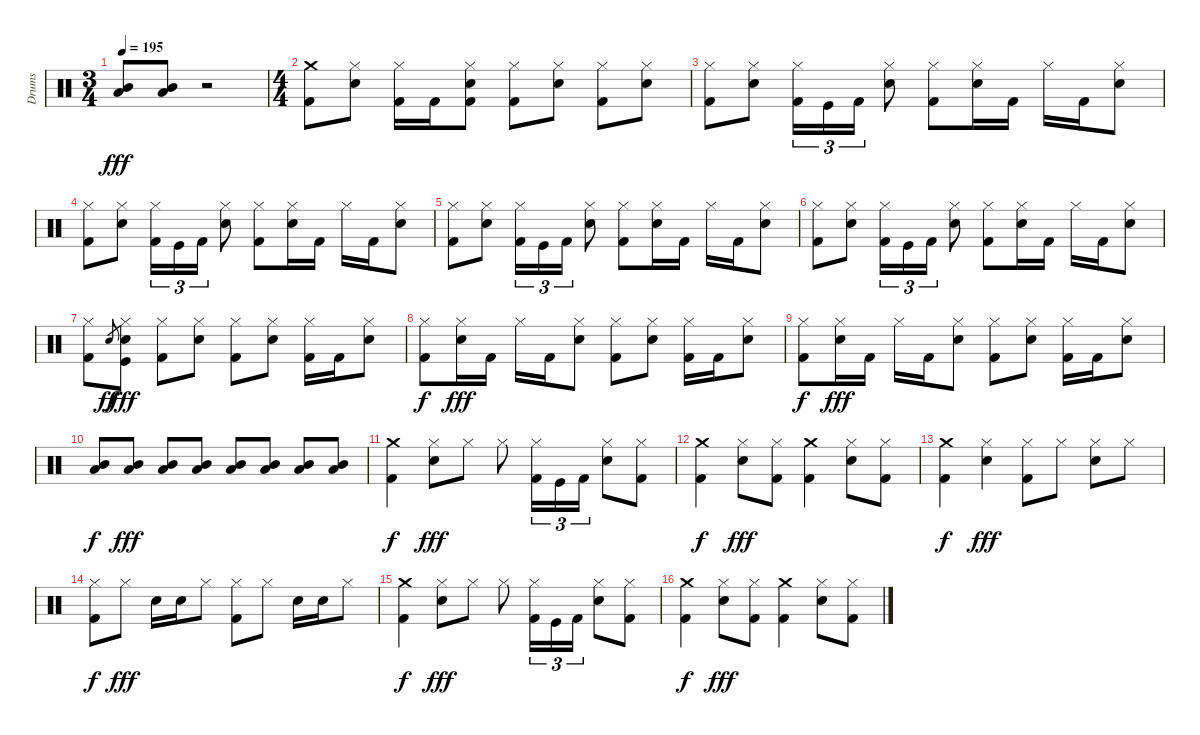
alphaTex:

\track ("Drums" "Drums") {instrument percussion}
\staff {score}
\articulation defaults
\ts (3 4)
\tempo 195
\clef neutral
\ks c
("Mid Tom (hit)" "Low Tom (hit)").8{dy fff} ("Mid Tom (hit)" "Low Tom (hit)").8 r.2 |
\ts (4 4)
("Kick (hit) 2" "Crash medium (hit)").8 ("Hi-Hat (closed)" "Snare (hit) 2").8 ("Kick (hit) 2" "Hi-Hat (closed)").16 "Kick (hit) 2".16 ("Kick (hit) 2" "Snare (hit) 2" "Hi-Hat (closed)").8 ("Kick (hit) 2" "Hi-Hat (closed)").8 ("Snare (hit) 2" "Hi-Hat (closed)").8 ("Kick (hit) 2" "Hi-Hat (closed)").8 ("Snare (hit) 2" "Hi-Hat (closed)").8 |
("Kick (hit) 2" "Hi-Hat (closed)").8 ("Snare (hit) 2" "Hi-Hat (closed)").8 ("Kick (hit) 2" "Hi-Hat (closed)").16{tu (3 2)} "Kick (hit)".16{tu (3 2)} "Kick (hit) 2".16{tu (3 2)} ("Snare (hit) 2" "Hi-Hat (closed)").8 ("Kick (hit) 2" "Hi-Hat (closed)").8 ("Snare (hit) 2" "Hi-Hat (closed)").16 "Kick (hit) 2".16 "Hi-Hat (closed)".16 "Kick (hit) 2".16 ("Snare (hit) 2" "Hi-Hat (closed)").8 |
("Kick (hit) 2" "Hi-Hat (closed)").8 ("Snare (hit) 2" "Hi-Hat (closed)").8 ("Kick (hit) 2" "Hi-Hat (closed)").16{tu (3 2)} "Kick (hit)".16{tu (3 2)} "Kick (hit) 2".16{tu (3 2)} ("Snare (hit) 2" "Hi-Hat (closed)").8 ("Kick (hit) 2" "Hi-Hat (closed)").8 ("Snare (hit) 2" "Hi-Hat (closed)").16 "Kick (hit) 2".16 "Hi-Hat (closed)".16 "Kick (hit) 2".16 ("Snare (hit) 2" "Hi-Hat (closed)").8 |
("Kick (hit) 2" "Hi-Hat (closed)").8 ("Snare (hit) 2" "Hi-Hat (closed)").8 ("Kick (hit) 2" "Hi-Hat (closed)").16{tu (3 2)} "Kick (hit)".16{tu (3 2)} "Kick (hit) 2".16{tu (3 2)} ("Snare (hit) 2" "Hi-Hat (closed)").8 ("Kick (hit) 2" "Hi-Hat (closed)").8 ("Snare (hit) 2" "Hi-Hat (closed)").16 "Kick (hit) 2".16 "Hi-Hat (closed)".16 "Kick (hit) 2".16 ("Snare (hit) 2" "Hi-Hat (closed)").8 |
("Kick (hit) 2" "Hi-Hat (closed)").8 ("Snare (hit) 2" "Hi-Hat (closed)").8 ("Kick (hit) 2" "Hi-Hat (closed)").16{tu (3 2)} "Kick (hit)".16{tu (3 2)} "Kick (hit) 2".16{tu (3 2)} ("Snare (hit) 2" "Hi-Hat (closed)").8 ("Kick (hit) 2" "Hi-Hat (closed)").8 ("Snare (hit) 2" "Hi-Hat (closed)").16 "Kick (hit) 2".16 "Hi-Hat (closed)".16 "Kick (hit) 2".16 ("Snare (hit) 2" "Hi-Hat (closed)").8 |
("Kick (hit) 2" "Hi-Hat (closed)").8 "Snare (hit)".8{gr dy ff} ("Kick (hit)" "Snare (hit) 2" "Hi-Hat (closed)").8{dy fff} ("Kick (hit) 2" "Hi-Hat (closed)").8 ("Snare (hit) 2" "Hi-Hat (closed)").8 ("Kick (hit) 2" "Hi-Hat (closed)").8 ("Snare (hit) 2" "Hi-Hat (closed)").8 ("Kick (hit) 2" "Hi-Hat (closed)").16 "Kick (hit) 2".16 ("Snare (hit) 2" "Hi-Hat (closed)").8 |
("Hi-Hat (closed)" "Kick (hit) 2").8{dy f} ("Snare (hit) 2" "Hi-Hat (closed)").16{dy fff} "Kick (hit) 2".16 "Hi-Hat (closed)".16 "Kick (hit) 2".16 ("Snare (hit) 2" "Hi-Hat (closed)").8 ("Hi-Hat (closed)" "Kick (hit) 2").8 ("Snare (hit) 2" "Hi-Hat (closed)").8 ("Hi-Hat (closed)" "Kick (hit) 2").16 "Kick (hit) 2".16 ("Snare (hit) 2" "Hi-Hat (closed)").8 |
("Hi-Hat (closed)" "Kick (hit) 2").8{dy f} ("Snare (hit) 2" "Hi-Hat (closed)").16{dy fff} "Kick (hit) 2".16 "Hi-Hat (closed)".16 "Kick (hit) 2".16 ("Snare (hit) 2" "Hi-Hat (closed)").8 ("Hi-Hat (closed)" "Kick (hit) 2").8 ("Snare (hit) 2" "Hi-Hat (closed)").8 ("Hi-Hat (closed)" "Kick (hit) 2").16 "Kick (hit) 2".16 ("Snare (hit) 2" "Hi-Hat (closed)").8 |
("Mid Tom (hit)" "Low Tom (hit)").8{dy f} ("Mid Tom (hit)" "Low Tom (hit)").8{dy fff} ("Mid Tom (hit)" "Low Tom (hit)").8 ("Mid Tom (hit)" "Low Tom (hit)").8 ("Mid Tom (hit)" "Low Tom (hit)").8 ("Mid Tom (hit)" "Low Tom (hit)").8 ("Mid Tom (hit)" "Low Tom (hit)").8 ("Mid Tom (hit)" "Low Tom (hit)").8 |
("Kick (hit) 2" "Crash medium (hit)").4{dy f} ("Snare (hit) 2" "Hi-Hat (closed)").8{dy fff} "Hi-Hat (closed)".8 "Hi-Hat (closed)".8 ("Kick (hit) 2" "Hi-Hat (closed)").16{tu (3 2)} "Kick (hit)".16{tu (3 2)} "Kick (hit) 2".16{tu (3 2)} ("Snare (hit) 2" "Hi-Hat (closed)").8 ("Kick (hit) 2" "Hi-Hat (closed)").8 |
("Kick (hit) 2" "Crash medium (hit)").4{dy f} ("Hi-Hat (closed)" "Snare (hit) 2").8{dy fff} ("Kick (hit) 2" "Hi-Hat (closed)").8 ("Crash medium (hit)" "Kick (hit) 2").4 ("Hi-Hat (closed)" "Snare (hit) 2").8 ("Kick (hit) 2" "Hi-Hat (closed)").8 |
("Kick (hit) 2" "Crash medium (hit)").4{dy f} ("Hi-Hat (closed)" "Snare (hit) 2").4{dy fff} ("Hi-Hat (closed)" "Kick (hit) 2").8 "Hi-Hat (closed)".8 ("Snare (hit) 2" "Hi-Hat (closed)").8 "Hi-Hat (closed)".8 |
("Kick (hit) 2" "Hi-Hat (closed)").8{dy f} "Hi-Hat (closed)".8{dy fff} "Snare (hit) 2".16 "Snare (hit) 2".16 "Hi-Hat (closed)".8 ("Kick (hit) 2" "Hi-Hat (closed)").8 "Hi-Hat (closed)".8 "Snare (hit) 2".16 "Snare (hit) 2".16 "Hi-Hat (closed)".8 |
("Kick (hit) 2" "Crash medium (hit)").4{dy f} ("Snare (hit) 2" "Hi-Hat (closed)").8{dy fff} "Hi-Hat (closed)".8 "Hi-Hat (closed)".8 ("Kick (hit) 2" "Hi-Hat (closed)").16{tu (3 2)} "Kick (hit)".16{tu (3 2)} "Kick (hit) 2".16{tu (3 2)} ("Snare (hit) 2" "Hi-Hat (closed)").8 ("Kick (hit) 2" "Hi-Hat (closed)").8 |
("Kick (hit) 2" "Crash medium (hit)").4{dy f} ("Hi-Hat (closed)" "Snare (hit) 2").8{dy fff} ("Kick (hit) 2" "Hi-Hat (closed)").8 ("Crash medium (hit)" "Kick (hit) 2").4 ("Hi-Hat (closed)" "Snare (hit) 2").8 ("Kick (hit) 2" "Hi-Hat (closed)").8
